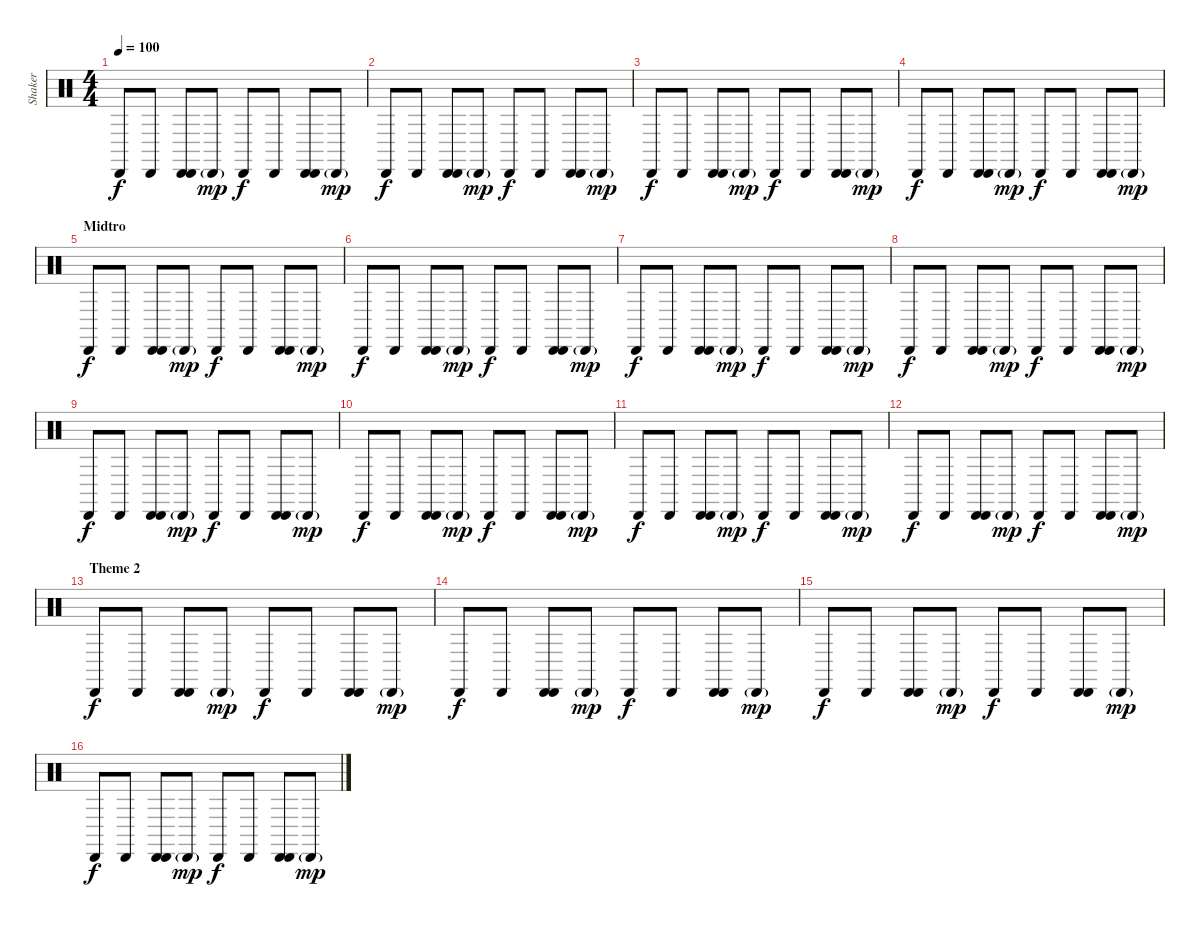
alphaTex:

\track ("Shaker" "Shaker") {instrument percussion}
\staff {score}
\articulation defaults
\ts (4 4)
\tempo 100
\clef neutral
\ks c "Cabasa (hit)".8{dy f} "Cabasa (hit)".8
("Cabasa (hit)" "Cabasa (hit)").8 "Cabasa (hit)"{g}.8{dy mp} "Cabasa (hit)".8{dy f} "Cabasa (hit)".8 ("Cabasa (hit)" "Cabasa (hit)").8 "Cabasa (hit)"{g}.8{dy mp} |
"Cabasa (hit)".8{dy f} "Cabasa (hit)".8 ("Cabasa (hit)" "Cabasa (hit)").8 "Cabasa (hit)"{g}.8{dy mp} "Cabasa (hit)".8{dy f} "Cabasa (hit)".8 ("Cabasa (hit)" "Cabasa (hit)").8 "Cabasa (hit)"{g}.8{dy mp} |
"Cabasa (hit)".8{dy f} "Cabasa (hit)".8 ("Cabasa (hit)" "Cabasa (hit)").8 "Cabasa (hit)"{g}.8{dy mp} "Cabasa (hit)".8{dy f} "Cabasa (hit)".8 ("Cabasa (hit)" "Cabasa (hit)").8 "Cabasa (hit)"{g}.8{dy mp} |
"Cabasa (hit)".8{dy f} "Cabasa (hit)".8 ("Cabasa (hit)" "Cabasa (hit)").8 "Cabasa (hit)"{g}.8{dy mp} "Cabasa (hit)".8{dy f} "Cabasa (hit)".8 ("Cabasa (hit)" "Cabasa (hit)").8 "Cabasa (hit)"{g}.8{dy mp} |
\section ("" "Midtro")
"Cabasa (hit)".8{dy f} "Cabasa (hit)".8 ("Cabasa (hit)" "Cabasa (hit)").8 "Cabasa (hit)"{g}.8{dy mp} "Cabasa (hit)".8{dy f} "Cabasa (hit)".8 ("Cabasa (hit)" "Cabasa (hit)").8 "Cabasa (hit)"{g}.8{dy mp} |
"Cabasa (hit)".8{dy f} "Cabasa (hit)".8 ("Cabasa (hit)" "Cabasa (hit)").8 "Cabasa (hit)"{g}.8{dy mp} "Cabasa (hit)".8{dy f} "Cabasa (hit)".8 ("Cabasa (hit)" "Cabasa (hit)").8 "Cabasa (hit)"{g}.8{dy mp} |
"Cabasa (hit)".8{dy f} "Cabasa (hit)".8 ("Cabasa (hit)" "Cabasa (hit)").8 "Cabasa (hit)"{g}.8{dy mp} "Cabasa (hit)".8{dy f} "Cabasa (hit)".8 ("Cabasa (hit)" "Cabasa (hit)").8 "Cabasa (hit)"{g}.8{dy mp} |
"Cabasa (hit)".8{dy f} "Cabasa (hit)".8 ("Cabasa (hit)" "Cabasa (hit)").8 "Cabasa (hit)"{g}.8{dy mp} "Cabasa (hit)".8{dy f} "Cabasa (hit)".8 ("Cabasa (hit)" "Cabasa (hit)").8 "Cabasa (hit)"{g}.8{dy mp} |
"Cabasa (hit)".8{dy f} "Cabasa (hit)".8 ("Cabasa (hit)" "Cabasa (hit)").8 "Cabasa (hit)"{g}.8{dy mp} "Cabasa (hit)".8{dy f} "Cabasa (hit)".8 ("Cabasa (hit)" "Cabasa (hit)").8 "Cabasa (hit)"{g}.8{dy mp} |
"Cabasa (hit)".8{dy f} "Cabasa (hit)".8 ("Cabasa (hit)" "Cabasa (hit)").8 "Cabasa (hit)"{g}.8{dy mp} "Cabasa (hit)".8{dy f} "Cabasa (hit)".8 ("Cabasa (hit)" "Cabasa (hit)").8 "Cabasa (hit)"{g}.8{dy mp} |
"Cabasa (hit)".8{dy f} "Cabasa (hit)".8 ("Cabasa (hit)" "Cabasa (hit)").8 "Cabasa (hit)"{g}.8{dy mp} "Cabasa (hit)".8{dy f} "Cabasa (hit)".8 ("Cabasa (hit)" "Cabasa (hit)").8 "Cabasa (hit)"{g}.8{dy mp} |
"Cabasa (hit)".8{dy f} "Cabasa (hit)".8 ("Cabasa (hit)" "Cabasa (hit)").8 "Cabasa (hit)"{g}.8{dy mp} "Cabasa (hit)".8{dy f} "Cabasa (hit)".8 ("Cabasa (hit)" "Cabasa (hit)").8 "Cabasa (hit)"{g}.8{dy mp} |
\section ("" "Theme 2")
"Cabasa (hit)".8{dy f} "Cabasa (hit)".8 ("Cabasa (hit)" "Cabasa (hit)").8 "Cabasa (hit)"{g}.8{dy mp} "Cabasa (hit)".8{dy f} "Cabasa (hit)".8 ("Cabasa (hit)" "Cabasa (hit)").8 "Cabasa (hit)"{g}.8{dy mp} |
"Cabasa (hit)".8{dy f} "Cabasa (hit)".8 ("Cabasa (hit)" "Cabasa (hit)").8 "Cabasa (hit)"{g}.8{dy mp} "Cabasa (hit)".8{dy f} "Cabasa (hit)".8 ("Cabasa (hit)" "Cabasa (hit)").8 "Cabasa (hit)"{g}.8{dy mp} |
"Cabasa (hit)".8{dy f} "Cabasa (hit)".8 ("Cabasa (hit)" "Cabasa (hit)").8 "Cabasa (hit)"{g}.8{dy mp} "Cabasa (hit)".8{dy f} "Cabasa (hit)".8 ("Cabasa (hit)" "Cabasa (hit)").8 "Cabasa (hit)"{g}.8{dy mp} |
"Cabasa (hit)".8{dy f} "Cabasa (hit)".8 ("Cabasa (hit)" "Cabasa (hit)").8 "Cabasa (hit)"{g}.8{dy mp} "Cabasa (hit)".8{dy f} "Cabasa (hit)".8 ("Cabasa (hit)" "Cabasa (hit)").8 "Cabasa (hit)"{g}.8{dy mp}
